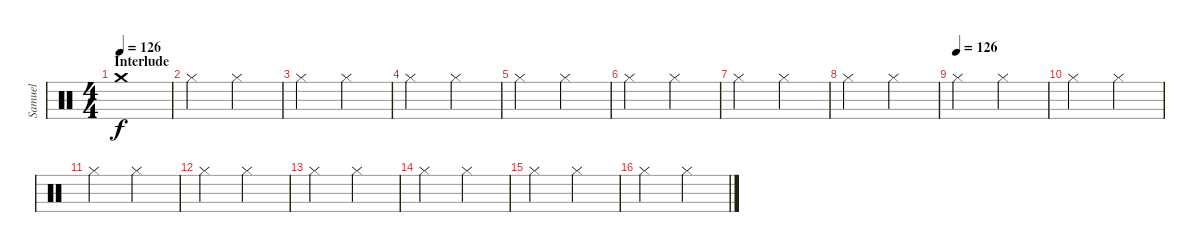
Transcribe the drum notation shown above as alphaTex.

\track ("Samuel" "Samuel") {instrument percussion}
\staff {score}
\articulation defaults
\ts (4 4)
\section ("" "Interlude")
\tempo 126
\clef neutral
\ks c "Crash medium (hit)".1{dy f}
|
"Hi-Hat (closed)".2 "Hi-Hat (closed)".2 |
"Hi-Hat (closed)".2 "Hi-Hat (closed)".2 |
"Hi-Hat (closed)".2 "Hi-Hat (closed)".2 |
"Hi-Hat (closed)".2 "Hi-Hat (closed)".2 |
"Hi-Hat (closed)".2 "Hi-Hat (closed)".2 |
"Hi-Hat (closed)".2 "Hi-Hat (closed)".2 |
"Hi-Hat (closed)".2 "Hi-Hat (closed)".2 |
\tempo (126)
"Hi-Hat (closed)".2 "Hi-Hat (closed)".2 |
"Hi-Hat (closed)".2 "Hi-Hat (closed)".2 |
"Hi-Hat (closed)".2 "Hi-Hat (closed)".2 |
"Hi-Hat (closed)".2 "Hi-Hat (closed)".2 |
"Hi-Hat (closed)".2 "Hi-Hat (closed)".2 |
"Hi-Hat (closed)".2 "Hi-Hat (closed)".2 |
"Hi-Hat (closed)".2 "Hi-Hat (closed)".2 |
"Hi-Hat (closed)".2 "Hi-Hat (closed)".2
